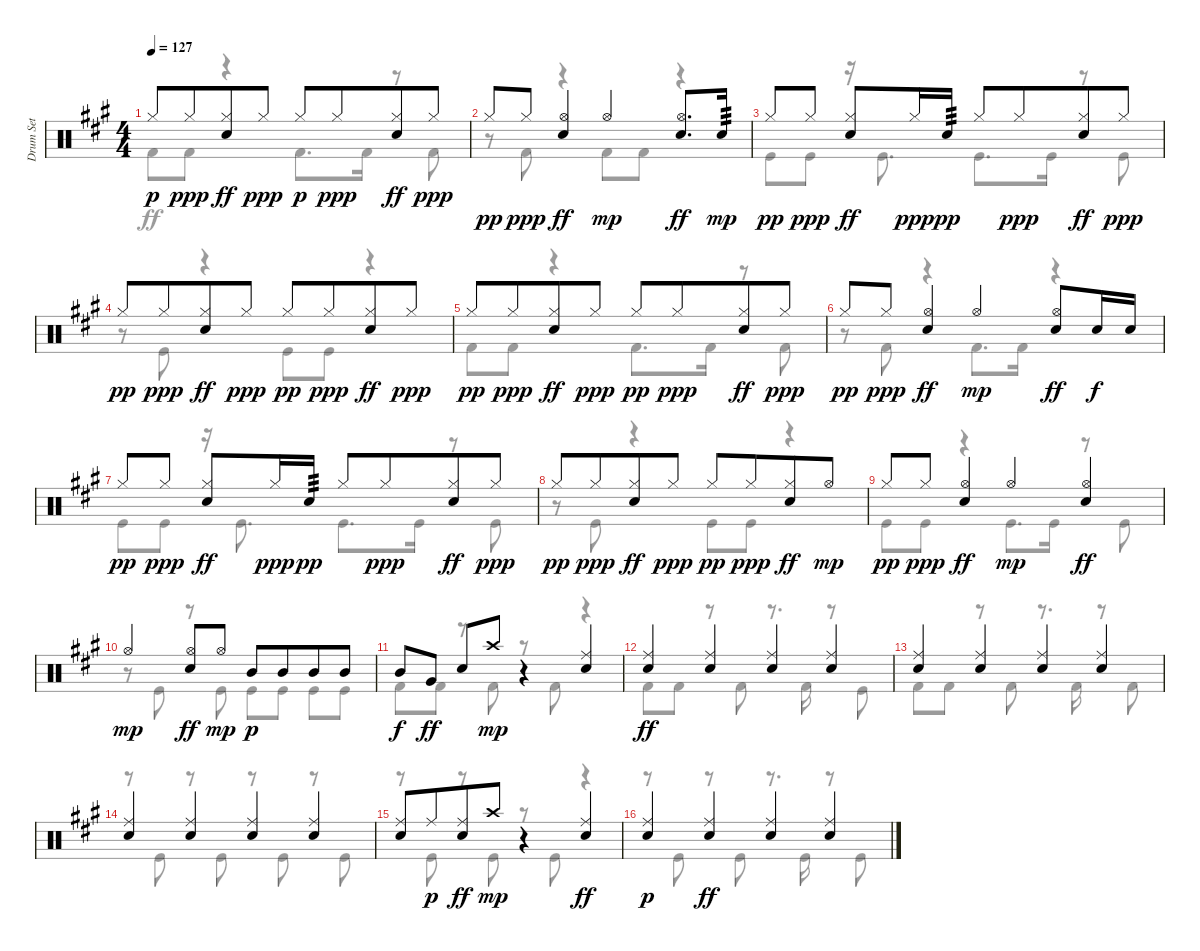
\track ("Drum Set" "Drum Set") {instrument percussion}
\staff {score}
\articulation defaults
\voice
\ts (4 4)
\tempo 127
\clef neutral
\ks a "Hi-Hat (closed)".8{dy p} "Hi-Hat (closed)".8{dy ppp beam merge}
("Hi-Hat (closed)" "Electric Snare (hit)").8{dy ff} "Hi-Hat (closed)".8{dy ppp} "Hi-Hat (closed)".8{dy p} "Hi-Hat (closed)".8{dy ppp beam merge} ("Hi-Hat (closed)" "Electric Snare (hit)").8{dy ff} "Hi-Hat (closed)".8{dy ppp} |
"Hi-Hat (closed)".8{dy pp} "Hi-Hat (closed)".8{dy ppp beam merge} ("Hi-Hat (open)" "Electric Snare (hit)").4{dy ff} "Hi-Hat (open)".4{dy mp} ("Hi-Hat (open)" "Electric Snare (hit)").8{d dy ff} "Electric Snare (hit)".16{tp 3 dy mp} |
"Hi-Hat (closed)".8{dy pp} "Hi-Hat (closed)".8{dy ppp beam split} ("Hi-Hat (closed)" "Electric Snare (hit)").8{dy ff} "Hi-Hat (closed)".16{dy ppp} "Electric Snare (hit)".16{tp 3 dy pp} "Hi-Hat (closed)".8 "Hi-Hat (closed)".8{dy ppp beam merge} ("Hi-Hat (closed)" "Electric Snare (hit)").8{dy ff} "Hi-Hat (closed)".8{dy ppp} |
"Hi-Hat (closed)".8{dy pp} "Hi-Hat (closed)".8{dy ppp beam merge} ("Hi-Hat (closed)" "Electric Snare (hit)").8{dy ff} "Hi-Hat (closed)".8{dy ppp} "Hi-Hat (closed)".8{dy pp} "Hi-Hat (closed)".8{dy ppp beam merge} ("Hi-Hat (closed)" "Electric Snare (hit)").8{dy ff} "Hi-Hat (closed)".8{dy ppp} |
"Hi-Hat (closed)".8{dy pp} "Hi-Hat (closed)".8{dy ppp beam merge} ("Hi-Hat (closed)" "Electric Snare (hit)").8{dy ff} "Hi-Hat (closed)".8{dy ppp} "Hi-Hat (closed)".8{dy pp} "Hi-Hat (closed)".8{dy ppp beam merge} ("Hi-Hat (closed)" "Electric Snare (hit)").8{dy ff} "Hi-Hat (closed)".8{dy ppp} |
"Hi-Hat (closed)".8{dy pp} "Hi-Hat (closed)".8{dy ppp beam merge} ("Hi-Hat (open)" "Electric Snare (hit)").4{dy ff} "Hi-Hat (open)".4{dy mp} ("Hi-Hat (open)" "Electric Snare (hit)").8{dy ff} "Electric Snare (hit)".16{dy f} "Electric Snare (hit)".16 |
"Hi-Hat (closed)".8{dy pp} "Hi-Hat (closed)".8{dy ppp beam split} ("Hi-Hat (closed)" "Electric Snare (hit)").8{dy ff} "Hi-Hat (closed)".16{dy ppp} "Electric Snare (hit)".16{tp 3 dy pp} "Hi-Hat (closed)".8 "Hi-Hat (closed)".8{dy ppp beam merge} ("Hi-Hat (closed)" "Electric Snare (hit)").8{dy ff} "Hi-Hat (closed)".8{dy ppp} |
"Hi-Hat (closed)".8{dy pp} "Hi-Hat (closed)".8{dy ppp beam merge} ("Hi-Hat (closed)" "Electric Snare (hit)").8{dy ff} "Hi-Hat (closed)".8{dy ppp} "Hi-Hat (closed)".8{dy pp} "Hi-Hat (closed)".8{dy ppp beam merge} ("Hi-Hat (closed)" "Electric Snare (hit)").8{dy ff} "Hi-Hat (open)".8{dy mp} |
"Hi-Hat (closed)".8{dy pp} "Hi-Hat (closed)".8{dy ppp} ("Hi-Hat (open)" "Electric Snare (hit)").4{dy ff} "Hi-Hat (open)".4{dy mp} ("Hi-Hat (open)" "Electric Snare (hit)").4{dy ff} |
"Hi-Hat (open)".4{dy mp} ("Hi-Hat (open)" "Electric Snare (hit)").8{dy ff} "Hi-Hat (open)".8{dy mp} "Mid Tom (hit)".8{dy p} "Mid Tom (hit)".8{beam merge} "Mid Tom (hit)".8 "Mid Tom (hit)".8 |
"Mid Tom (hit)".8{dy f} "Very Low Tom (hit)".8{dy ff} "Electric Snare (hit)".8 "Crash high (hit)".8{dy mp} r.4 ("Electric Snare (hit)" "Ride (middle)").4 |
("Ride (middle)" "Electric Snare (hit)").4{dy ff} ("Ride (middle)" "Electric Snare (hit)").4 ("Ride (middle)" "Electric Snare (hit)").4 ("Ride (middle)" "Electric Snare (hit)").4 |
("Ride (middle)" "Electric Snare (hit)").4 ("Ride (middle)" "Electric Snare (hit)").4 ("Ride (middle)" "Electric Snare (hit)").4 ("Ride (middle)" "Electric Snare (hit)").4 |
("Ride (middle)" "Electric Snare (hit)").4 ("Ride (middle)" "Electric Snare (hit)").4 ("Ride (middle)" "Electric Snare (hit)").4 ("Ride (middle)" "Electric Snare (hit)").4 |
("Ride (middle)" "Electric Snare (hit)").8 "Ride (middle)".8{dy p beam merge} ("Ride (middle)" "Electric Snare (hit)").8{dy ff} "Crash high (hit)".8{dy mp} r.4 ("Ride (middle)" "Electric Snare (hit)").4{dy ff} |
("Electric Snare (hit)" "Ride (middle)").4{dy p} ("Ride (middle)" "Electric Snare (hit)").4{dy ff} ("Ride (middle)" "Electric Snare (hit)").4 ("Ride (middle)" "Electric Snare (hit)").4
\voice
\clef neutral
\ottava regular
\simile none
\ks a "Kick (hit) 2".8{dy ff} "Kick (hit) 2".8
r.4 "Kick (hit) 2".8{d} "Kick (hit) 2".16 r.8 "Kick (hit) 2".8 |
r.8 "Kick (hit) 2".8 r.4 "Kick (hit) 2".8 "Kick (hit) 2".8 r.4 |
"Kick (hit)".8 "Kick (hit)".8 r.16 "Kick (hit)".8{d} "Kick (hit)".8{d} "Kick (hit)".16 r.8 "Kick (hit)".8 |
r.8 "Kick (hit)".8 r.4 "Kick (hit)".8 "Kick (hit)".8 r.4 |
"Kick (hit) 2".8 "Kick (hit) 2".8 r.4 "Kick (hit) 2".8{d} "Kick (hit) 2".16 r.8 "Kick (hit) 2".8 |
r.8 "Kick (hit) 2".8 r.4 "Kick (hit) 2".8{d} "Kick (hit) 2".16 r.4 |
"Kick (hit)".8 "Kick (hit)".8 r.16 "Kick (hit)".8{d} "Kick (hit)".8{d} "Kick (hit)".16 r.8 "Kick (hit)".8 |
r.8 "Kick (hit)".8 r.4 "Kick (hit)".8 "Kick (hit)".8 r.4 |
"Kick (hit)".8 "Kick (hit)".8 r.4 "Kick (hit)".8{d} "Kick (hit)".16 r.8 "Kick (hit)".8 |
r.8 "Kick (hit)".8 r.8 "Kick (hit)".8 "Kick (hit)".8 "Kick (hit)".8 "Kick (hit)".8 "Kick (hit)".8 |
"Kick (hit) 2".8 "Kick (hit) 2".8 r.8 "Kick (hit) 2".8 r.8 "Kick (hit) 2".8 r.4 |
"Kick (hit) 2".8 "Kick (hit) 2".8 r.8 "Kick (hit) 2".8 r.8{d} "Kick (hit) 2".16 r.8 "Kick (hit)".8 |
"Kick (hit) 2".8 "Kick (hit) 2".8 r.8 "Kick (hit) 2".8 r.8{d} "Kick (hit) 2".16 r.8 "Kick (hit) 2".8 |
r.8 "Kick (hit)".8 r.8 "Kick (hit)".8 r.8 "Kick (hit)".8 r.8 "Kick (hit)".8 |
r.8 "Kick (hit)".8 r.8 "Kick (hit)".8 r.8 "Kick (hit)".8 r.4 |
r.8 "Kick (hit)".8 r.8 "Kick (hit)".8 r.8{d} "Kick (hit)".16 r.8 "Kick (hit)".8
